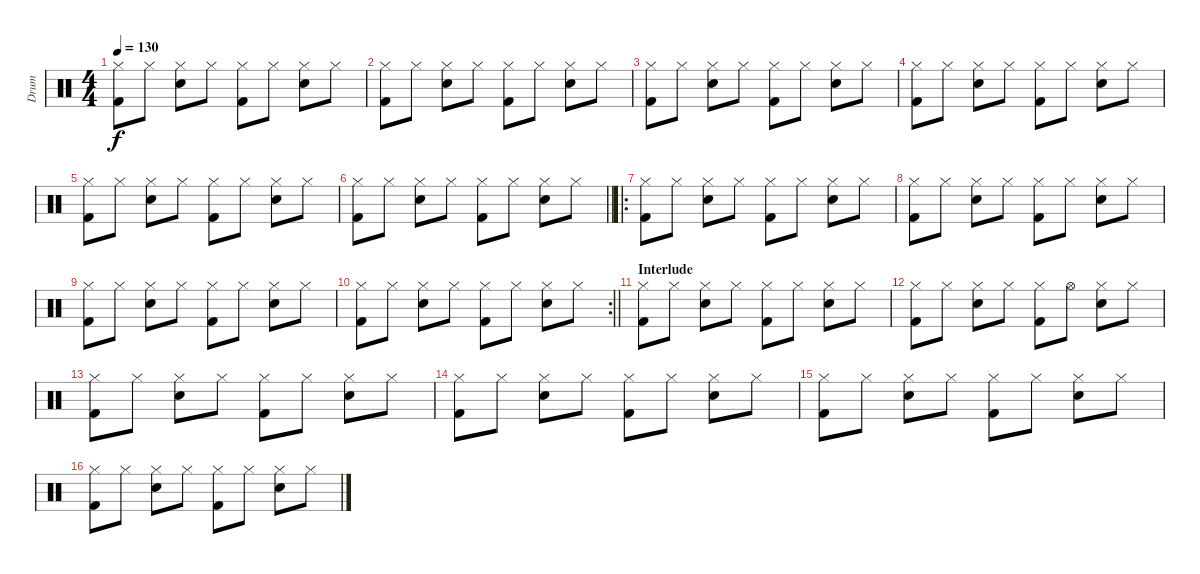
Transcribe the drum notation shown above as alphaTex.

\track ("Drum" "Drum") {instrument percussion}
\staff {score}
\articulation defaults
\ts (4 4)
\tempo 130
\clef neutral
\ks c
("Hi-Hat (closed)" "Kick (hit) 2").8{dy f} "Hi-Hat (closed)".8 ("Snare (hit) 2" "Hi-Hat (closed)").8 "Hi-Hat (closed)".8 ("Hi-Hat (closed)" "Kick (hit) 2").8 "Hi-Hat (closed)".8 ("Snare (hit) 2" "Hi-Hat (closed)").8 "Hi-Hat (closed)".8 |
("Hi-Hat (closed)" "Kick (hit) 2").8 "Hi-Hat (closed)".8 ("Snare (hit) 2" "Hi-Hat (closed)").8 "Hi-Hat (closed)".8 ("Hi-Hat (closed)" "Kick (hit) 2").8 "Hi-Hat (closed)".8 ("Snare (hit) 2" "Hi-Hat (closed)").8 "Hi-Hat (closed)".8 |
("Hi-Hat (closed)" "Kick (hit) 2").8 "Hi-Hat (closed)".8 ("Snare (hit) 2" "Hi-Hat (closed)").8 "Hi-Hat (closed)".8 ("Hi-Hat (closed)" "Kick (hit) 2").8 "Hi-Hat (closed)".8 ("Snare (hit) 2" "Hi-Hat (closed)").8 "Hi-Hat (closed)".8 |
("Hi-Hat (closed)" "Kick (hit) 2").8 "Hi-Hat (closed)".8 ("Snare (hit) 2" "Hi-Hat (closed)").8 "Hi-Hat (closed)".8 ("Hi-Hat (closed)" "Kick (hit) 2").8 "Hi-Hat (closed)".8 ("Snare (hit) 2" "Hi-Hat (closed)").8 "Hi-Hat (closed)".8 |
("Hi-Hat (closed)" "Kick (hit) 2").8 "Hi-Hat (closed)".8 ("Snare (hit) 2" "Hi-Hat (closed)").8 "Hi-Hat (closed)".8 ("Hi-Hat (closed)" "Kick (hit) 2").8 "Hi-Hat (closed)".8 ("Snare (hit) 2" "Hi-Hat (closed)").8 "Hi-Hat (closed)".8 |
\barLineRight lightlight
("Hi-Hat (closed)" "Kick (hit) 2").8 "Hi-Hat (closed)".8 ("Snare (hit) 2" "Hi-Hat (closed)").8 "Hi-Hat (closed)".8 ("Hi-Hat (closed)" "Kick (hit) 2").8 "Hi-Hat (closed)".8 ("Snare (hit) 2" "Hi-Hat (closed)").8 "Hi-Hat (closed)".8 |
\ro
("Hi-Hat (closed)" "Kick (hit) 2").8 "Hi-Hat (closed)".8 ("Snare (hit) 2" "Hi-Hat (closed)").8 "Hi-Hat (closed)".8 ("Hi-Hat (closed)" "Kick (hit) 2").8 "Hi-Hat (closed)".8 ("Snare (hit) 2" "Hi-Hat (closed)").8 "Hi-Hat (closed)".8 |
("Hi-Hat (closed)" "Kick (hit) 2").8 "Hi-Hat (closed)".8 ("Snare (hit) 2" "Hi-Hat (closed)").8 "Hi-Hat (closed)".8 ("Hi-Hat (closed)" "Kick (hit) 2").8 "Hi-Hat (closed)".8 ("Snare (hit) 2" "Hi-Hat (closed)").8 "Hi-Hat (closed)".8 |
("Hi-Hat (closed)" "Kick (hit) 2").8 "Hi-Hat (closed)".8 ("Snare (hit) 2" "Hi-Hat (closed)").8 "Hi-Hat (closed)".8 ("Hi-Hat (closed)" "Kick (hit) 2").8 "Hi-Hat (closed)".8 ("Snare (hit) 2" "Hi-Hat (closed)").8 "Hi-Hat (closed)".8 |
\rc 2
\barLineRight lightlight
("Hi-Hat (closed)" "Kick (hit) 2").8 "Hi-Hat (closed)".8 ("Snare (hit) 2" "Hi-Hat (closed)").8 "Hi-Hat (closed)".8 ("Hi-Hat (closed)" "Kick (hit) 2").8 "Hi-Hat (closed)".8 ("Snare (hit) 2" "Hi-Hat (closed)").8 "Hi-Hat (closed)".8 |
\section ("" "Interlude")
("Hi-Hat (closed)" "Kick (hit) 2").8 "Hi-Hat (closed)".8 ("Snare (hit) 2" "Hi-Hat (closed)").8 "Hi-Hat (closed)".8 ("Hi-Hat (closed)" "Kick (hit) 2").8 "Hi-Hat (closed)".8 ("Snare (hit) 2" "Hi-Hat (closed)").8 "Hi-Hat (closed)".8 |
("Hi-Hat (closed)" "Kick (hit) 2").8 "Hi-Hat (closed)".8 ("Snare (hit) 2" "Hi-Hat (closed)").8 "Hi-Hat (closed)".8 ("Hi-Hat (closed)" "Kick (hit) 2").8 "Hi-Hat (open)".8 ("Snare (hit) 2" "Hi-Hat (closed)").8 "Hi-Hat (closed)".8 |
("Hi-Hat (closed)" "Kick (hit) 2").8 "Hi-Hat (closed)".8 ("Snare (hit) 2" "Hi-Hat (closed)").8 "Hi-Hat (closed)".8 ("Hi-Hat (closed)" "Kick (hit) 2").8 "Hi-Hat (closed)".8 ("Snare (hit) 2" "Hi-Hat (closed)").8 "Hi-Hat (closed)".8 |
("Hi-Hat (closed)" "Kick (hit) 2").8 "Hi-Hat (closed)".8 ("Snare (hit) 2" "Hi-Hat (closed)").8 "Hi-Hat (closed)".8 ("Hi-Hat (closed)" "Kick (hit) 2").8 "Hi-Hat (closed)".8 ("Snare (hit) 2" "Hi-Hat (closed)").8 "Hi-Hat (closed)".8 |
("Hi-Hat (closed)" "Kick (hit) 2").8 "Hi-Hat (closed)".8 ("Snare (hit) 2" "Hi-Hat (closed)").8 "Hi-Hat (closed)".8 ("Hi-Hat (closed)" "Kick (hit) 2").8 "Hi-Hat (closed)".8 ("Snare (hit) 2" "Hi-Hat (closed)").8 "Hi-Hat (closed)".8 |
("Hi-Hat (closed)" "Kick (hit) 2").8 "Hi-Hat (closed)".8 ("Snare (hit) 2" "Hi-Hat (closed)").8 "Hi-Hat (closed)".8 ("Hi-Hat (closed)" "Kick (hit) 2").8 "Hi-Hat (closed)".8 ("Snare (hit) 2" "Hi-Hat (closed)").8 "Hi-Hat (closed)".8
